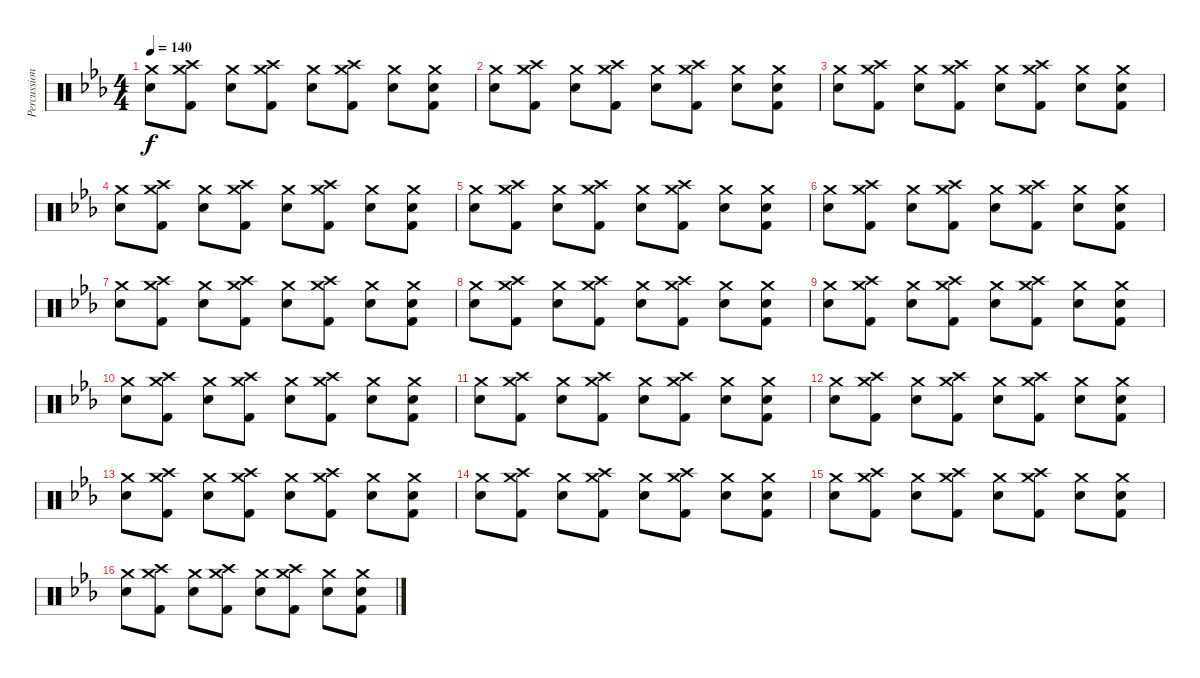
\track ("Percussion (John)" "Percussion") {instrument percussion}
\staff {score}
\articulation defaults
\ts (4 4)
\tempo 140
\clef neutral
\ks cminor
("Crash medium (hit)" "Electric Snare (hit)").8{dy f} ("Crash medium (hit)" "Crash high (hit)" "Kick (hit) 2").8 ("Crash medium (hit)" "Electric Snare (hit)").8 ("Crash medium (hit)" "Crash high (hit)" "Kick (hit) 2").8 ("Crash medium (hit)" "Electric Snare (hit)").8 ("Crash medium (hit)" "Crash high (hit)" "Kick (hit) 2").8 ("Crash medium (hit)" "Electric Snare (hit)").8 ("Crash medium (hit)" "Electric Snare (hit)" "Kick (hit) 2").8 |
("Crash medium (hit)" "Electric Snare (hit)").8 ("Crash medium (hit)" "Crash high (hit)" "Kick (hit) 2").8 ("Crash medium (hit)" "Electric Snare (hit)").8 ("Crash medium (hit)" "Crash high (hit)" "Kick (hit) 2").8 ("Crash medium (hit)" "Electric Snare (hit)").8 ("Crash medium (hit)" "Crash high (hit)" "Kick (hit) 2").8 ("Crash medium (hit)" "Electric Snare (hit)").8 ("Crash medium (hit)" "Electric Snare (hit)" "Kick (hit) 2").8 |
("Crash medium (hit)" "Electric Snare (hit)").8 ("Crash medium (hit)" "Crash high (hit)" "Kick (hit) 2").8 ("Crash medium (hit)" "Electric Snare (hit)").8 ("Crash medium (hit)" "Crash high (hit)" "Kick (hit) 2").8 ("Crash medium (hit)" "Electric Snare (hit)").8 ("Crash medium (hit)" "Crash high (hit)" "Kick (hit) 2").8 ("Crash medium (hit)" "Electric Snare (hit)").8 ("Crash medium (hit)" "Electric Snare (hit)" "Kick (hit) 2").8 |
("Crash medium (hit)" "Electric Snare (hit)").8 ("Crash medium (hit)" "Crash high (hit)" "Kick (hit) 2").8 ("Crash medium (hit)" "Electric Snare (hit)").8 ("Crash medium (hit)" "Crash high (hit)" "Kick (hit) 2").8 ("Crash medium (hit)" "Electric Snare (hit)").8 ("Crash medium (hit)" "Crash high (hit)" "Kick (hit) 2").8 ("Crash medium (hit)" "Electric Snare (hit)").8 ("Crash medium (hit)" "Electric Snare (hit)" "Kick (hit) 2").8 |
("Crash medium (hit)" "Electric Snare (hit)").8 ("Crash medium (hit)" "Crash high (hit)" "Kick (hit) 2").8 ("Crash medium (hit)" "Electric Snare (hit)").8 ("Crash medium (hit)" "Crash high (hit)" "Kick (hit) 2").8 ("Crash medium (hit)" "Electric Snare (hit)").8 ("Crash medium (hit)" "Crash high (hit)" "Kick (hit) 2").8 ("Crash medium (hit)" "Electric Snare (hit)").8 ("Crash medium (hit)" "Electric Snare (hit)" "Kick (hit) 2").8 |
("Crash medium (hit)" "Electric Snare (hit)").8 ("Crash medium (hit)" "Crash high (hit)" "Kick (hit) 2").8 ("Crash medium (hit)" "Electric Snare (hit)").8 ("Crash medium (hit)" "Crash high (hit)" "Kick (hit) 2").8 ("Crash medium (hit)" "Electric Snare (hit)").8 ("Crash medium (hit)" "Crash high (hit)" "Kick (hit) 2").8 ("Crash medium (hit)" "Electric Snare (hit)").8 ("Crash medium (hit)" "Electric Snare (hit)" "Kick (hit) 2").8 |
("Crash medium (hit)" "Electric Snare (hit)").8 ("Crash medium (hit)" "Crash high (hit)" "Kick (hit) 2").8 ("Crash medium (hit)" "Electric Snare (hit)").8 ("Crash medium (hit)" "Crash high (hit)" "Kick (hit) 2").8 ("Crash medium (hit)" "Electric Snare (hit)").8 ("Crash medium (hit)" "Crash high (hit)" "Kick (hit) 2").8 ("Crash medium (hit)" "Electric Snare (hit)").8 ("Crash medium (hit)" "Electric Snare (hit)" "Kick (hit) 2").8 |
("Crash medium (hit)" "Electric Snare (hit)").8 ("Crash medium (hit)" "Crash high (hit)" "Kick (hit) 2").8 ("Crash medium (hit)" "Electric Snare (hit)").8 ("Crash medium (hit)" "Crash high (hit)" "Kick (hit) 2").8 ("Crash medium (hit)" "Electric Snare (hit)").8 ("Crash medium (hit)" "Crash high (hit)" "Kick (hit) 2").8 ("Crash medium (hit)" "Electric Snare (hit)").8 ("Crash medium (hit)" "Electric Snare (hit)" "Kick (hit) 2").8 |
("Crash medium (hit)" "Electric Snare (hit)").8 ("Crash medium (hit)" "Crash high (hit)" "Kick (hit) 2").8 ("Crash medium (hit)" "Electric Snare (hit)").8 ("Crash medium (hit)" "Crash high (hit)" "Kick (hit) 2").8 ("Crash medium (hit)" "Electric Snare (hit)").8 ("Crash medium (hit)" "Crash high (hit)" "Kick (hit) 2").8 ("Crash medium (hit)" "Electric Snare (hit)").8 ("Crash medium (hit)" "Electric Snare (hit)" "Kick (hit) 2").8 |
("Crash medium (hit)" "Electric Snare (hit)").8 ("Crash medium (hit)" "Crash high (hit)" "Kick (hit) 2").8 ("Crash medium (hit)" "Electric Snare (hit)").8 ("Crash medium (hit)" "Crash high (hit)" "Kick (hit) 2").8 ("Crash medium (hit)" "Electric Snare (hit)").8 ("Crash medium (hit)" "Crash high (hit)" "Kick (hit) 2").8 ("Crash medium (hit)" "Electric Snare (hit)").8 ("Crash medium (hit)" "Electric Snare (hit)" "Kick (hit) 2").8 |
("Crash medium (hit)" "Electric Snare (hit)").8 ("Crash medium (hit)" "Crash high (hit)" "Kick (hit) 2").8 ("Crash medium (hit)" "Electric Snare (hit)").8 ("Crash medium (hit)" "Crash high (hit)" "Kick (hit) 2").8 ("Crash medium (hit)" "Electric Snare (hit)").8 ("Crash medium (hit)" "Crash high (hit)" "Kick (hit) 2").8 ("Crash medium (hit)" "Electric Snare (hit)").8 ("Crash medium (hit)" "Electric Snare (hit)" "Kick (hit) 2").8 |
("Crash medium (hit)" "Electric Snare (hit)").8 ("Crash medium (hit)" "Crash high (hit)" "Kick (hit) 2").8 ("Crash medium (hit)" "Electric Snare (hit)").8 ("Crash medium (hit)" "Crash high (hit)" "Kick (hit) 2").8 ("Crash medium (hit)" "Electric Snare (hit)").8 ("Crash medium (hit)" "Crash high (hit)" "Kick (hit) 2").8 ("Crash medium (hit)" "Electric Snare (hit)").8 ("Crash medium (hit)" "Electric Snare (hit)" "Kick (hit) 2").8 |
("Crash medium (hit)" "Electric Snare (hit)").8 ("Crash medium (hit)" "Crash high (hit)" "Kick (hit) 2").8 ("Crash medium (hit)" "Electric Snare (hit)").8 ("Crash medium (hit)" "Crash high (hit)" "Kick (hit) 2").8 ("Crash medium (hit)" "Electric Snare (hit)").8 ("Crash medium (hit)" "Crash high (hit)" "Kick (hit) 2").8 ("Crash medium (hit)" "Electric Snare (hit)").8 ("Crash medium (hit)" "Electric Snare (hit)" "Kick (hit) 2").8 |
("Crash medium (hit)" "Electric Snare (hit)").8 ("Crash medium (hit)" "Crash high (hit)" "Kick (hit) 2").8 ("Crash medium (hit)" "Electric Snare (hit)").8 ("Crash medium (hit)" "Crash high (hit)" "Kick (hit) 2").8 ("Crash medium (hit)" "Electric Snare (hit)").8 ("Crash medium (hit)" "Crash high (hit)" "Kick (hit) 2").8 ("Crash medium (hit)" "Electric Snare (hit)").8 ("Crash medium (hit)" "Electric Snare (hit)" "Kick (hit) 2").8 |
("Crash medium (hit)" "Electric Snare (hit)").8 ("Crash medium (hit)" "Crash high (hit)" "Kick (hit) 2").8 ("Crash medium (hit)" "Electric Snare (hit)").8 ("Crash medium (hit)" "Crash high (hit)" "Kick (hit) 2").8 ("Crash medium (hit)" "Electric Snare (hit)").8 ("Crash medium (hit)" "Crash high (hit)" "Kick (hit) 2").8 ("Crash medium (hit)" "Electric Snare (hit)").8 ("Crash medium (hit)" "Electric Snare (hit)" "Kick (hit) 2").8 |
("Crash medium (hit)" "Electric Snare (hit)").8 ("Crash medium (hit)" "Crash high (hit)" "Kick (hit) 2").8 ("Crash medium (hit)" "Electric Snare (hit)").8 ("Crash medium (hit)" "Crash high (hit)" "Kick (hit) 2").8 ("Crash medium (hit)" "Electric Snare (hit)").8 ("Crash medium (hit)" "Crash high (hit)" "Kick (hit) 2").8 ("Crash medium (hit)" "Electric Snare (hit)").8 ("Crash medium (hit)" "Electric Snare (hit)" "Kick (hit) 2").8
